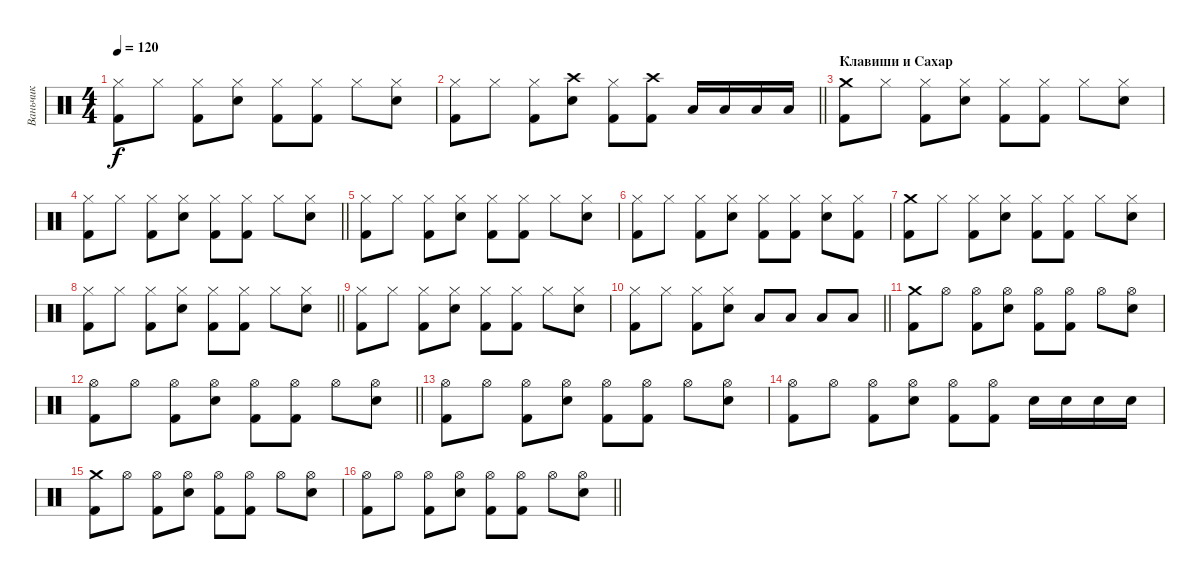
\track ("Ваньчик" "Ваньчик") {instrument percussion}
\staff {score}
\articulation defaults
\ts (4 4)
\tempo 120
\clef neutral
\ks c
("Hi-Hat (closed)" "Kick (hit) 2").8{dy f} "Hi-Hat (closed)".8 ("Hi-Hat (closed)" "Kick (hit) 2").8 ("Hi-Hat (closed)" "Snare (hit) 2").8 ("Hi-Hat (closed)" "Kick (hit) 2").8 ("Hi-Hat (closed)" "Kick (hit) 2").8 "Hi-Hat (closed)".8 ("Hi-Hat (closed)" "Snare (hit) 2").8 |
\barLineRight lightlight
("Hi-Hat (closed)" "Kick (hit) 2").8 "Hi-Hat (closed)".8 ("Hi-Hat (closed)" "Kick (hit) 2").8 ("Crash high (hit)" "Snare (hit) 2").8 ("Hi-Hat (closed)" "Kick (hit) 2").8 ("Crash high (hit)" "Kick (hit) 2").8 "Low Floor Tom (hit)".16 "Low Floor Tom (hit)".16 "Low Floor Tom (hit)".16 "Low Floor Tom (hit)".16 |
\section ("" "Клавиши и Сахар")
("Crash medium (hit)" "Kick (hit) 2").8 "Hi-Hat (closed)".8 ("Hi-Hat (closed)" "Kick (hit) 2").8 ("Hi-Hat (closed)" "Snare (hit) 2").8 ("Hi-Hat (closed)" "Kick (hit) 2").8 ("Hi-Hat (closed)" "Kick (hit) 2").8 "Hi-Hat (closed)".8 ("Hi-Hat (closed)" "Snare (hit) 2").8 |
\barLineRight lightlight
("Hi-Hat (closed)" "Kick (hit) 2").8 "Hi-Hat (closed)".8 ("Hi-Hat (closed)" "Kick (hit) 2").8 ("Hi-Hat (closed)" "Snare (hit) 2").8 ("Hi-Hat (closed)" "Kick (hit) 2").8 ("Hi-Hat (closed)" "Kick (hit) 2").8 "Hi-Hat (closed)".8 ("Hi-Hat (closed)" "Snare (hit) 2").8 |
("Hi-Hat (closed)" "Kick (hit) 2").8 "Hi-Hat (closed)".8 ("Hi-Hat (closed)" "Kick (hit) 2").8 ("Hi-Hat (closed)" "Snare (hit) 2").8 ("Hi-Hat (closed)" "Kick (hit) 2").8 ("Hi-Hat (closed)" "Kick (hit) 2").8 "Hi-Hat (closed)".8 ("Hi-Hat (closed)" "Snare (hit) 2").8 |
("Hi-Hat (closed)" "Kick (hit) 2").8 "Hi-Hat (closed)".8 ("Hi-Hat (closed)" "Kick (hit) 2").8 ("Hi-Hat (closed)" "Snare (hit) 2").8 ("Hi-Hat (closed)" "Kick (hit) 2").8 ("Hi-Hat (closed)" "Kick (hit) 2").8 ("Hi-Hat (closed)" "Snare (hit) 2").8 ("Hi-Hat (closed)" "Kick (hit) 2").8 |
("Crash medium (hit)" "Kick (hit) 2").8 "Hi-Hat (closed)".8 ("Hi-Hat (closed)" "Kick (hit) 2").8 ("Hi-Hat (closed)" "Snare (hit) 2").8 ("Hi-Hat (closed)" "Kick (hit) 2").8 ("Hi-Hat (closed)" "Kick (hit) 2").8 "Hi-Hat (closed)".8 ("Hi-Hat (closed)" "Snare (hit) 2").8 |
\barLineRight lightlight
("Hi-Hat (closed)" "Kick (hit) 2").8 "Hi-Hat (closed)".8 ("Hi-Hat (closed)" "Kick (hit) 2").8 ("Hi-Hat (closed)" "Snare (hit) 2").8 ("Hi-Hat (closed)" "Kick (hit) 2").8 ("Hi-Hat (closed)" "Kick (hit) 2").8 "Hi-Hat (closed)".8 ("Hi-Hat (closed)" "Snare (hit) 2").8 |
("Hi-Hat (closed)" "Kick (hit) 2").8 "Hi-Hat (closed)".8 ("Hi-Hat (closed)" "Kick (hit) 2").8 ("Hi-Hat (closed)" "Snare (hit) 2").8 ("Hi-Hat (closed)" "Kick (hit) 2").8 ("Hi-Hat (closed)" "Kick (hit) 2").8 "Hi-Hat (closed)".8 ("Hi-Hat (closed)" "Snare (hit) 2").8 |
\barLineRight lightlight
("Hi-Hat (closed)" "Kick (hit) 2").8 "Hi-Hat (closed)".8 ("Hi-Hat (closed)" "Kick (hit) 2").8 ("Hi-Hat (closed)" "Snare (hit) 2").8 "Low Floor Tom (hit)".8 "Low Floor Tom (hit)".8 "Low Floor Tom (hit)".8 "Low Floor Tom (hit)".8 |
("Crash medium (hit)" "Kick (hit) 2").8 "Hi-Hat (open)".8 ("Hi-Hat (open)" "Kick (hit) 2").8 ("Hi-Hat (open)" "Snare (hit) 2").8 ("Hi-Hat (open)" "Kick (hit) 2").8 ("Hi-Hat (open)" "Kick (hit) 2").8 "Hi-Hat (open)".8 ("Hi-Hat (open)" "Snare (hit) 2").8 |
\barLineRight lightlight
("Hi-Hat (open)" "Kick (hit) 2").8 "Hi-Hat (open)".8 ("Hi-Hat (open)" "Kick (hit) 2").8 ("Hi-Hat (open)" "Snare (hit) 2").8 ("Hi-Hat (open)" "Kick (hit) 2").8 ("Hi-Hat (open)" "Kick (hit) 2").8 "Hi-Hat (open)".8 ("Hi-Hat (open)" "Snare (hit) 2").8 |
("Hi-Hat (open)" "Kick (hit) 2").8 "Hi-Hat (open)".8 ("Hi-Hat (open)" "Kick (hit) 2").8 ("Hi-Hat (open)" "Snare (hit) 2").8 ("Hi-Hat (open)" "Kick (hit) 2").8 ("Hi-Hat (open)" "Kick (hit) 2").8 "Hi-Hat (open)".8 ("Hi-Hat (open)" "Snare (hit) 2").8 |
("Hi-Hat (open)" "Kick (hit) 2").8 "Hi-Hat (open)".8 ("Hi-Hat (open)" "Kick (hit) 2").8 ("Hi-Hat (open)" "Snare (hit) 2").8 ("Hi-Hat (open)" "Kick (hit) 2").8 ("Hi-Hat (open)" "Kick (hit) 2").8 "Snare (hit) 2".16 "Snare (hit) 2".16 "Snare (hit) 2".16 "Snare (hit) 2".16 |
("Crash medium (hit)" "Kick (hit) 2").8 "Hi-Hat (open)".8 ("Hi-Hat (open)" "Kick (hit) 2").8 ("Hi-Hat (open)" "Snare (hit) 2").8 ("Hi-Hat (open)" "Kick (hit) 2").8 ("Hi-Hat (open)" "Kick (hit) 2").8 "Hi-Hat (open)".8 ("Hi-Hat (open)" "Snare (hit) 2").8 |
\barLineRight lightlight
("Hi-Hat (open)" "Kick (hit) 2").8 "Hi-Hat (open)".8 ("Hi-Hat (open)" "Kick (hit) 2").8 ("Hi-Hat (open)" "Snare (hit) 2").8 ("Hi-Hat (open)" "Kick (hit) 2").8 ("Hi-Hat (open)" "Kick (hit) 2").8 "Hi-Hat (open)".8 ("Hi-Hat (open)" "Snare (hit) 2").8
